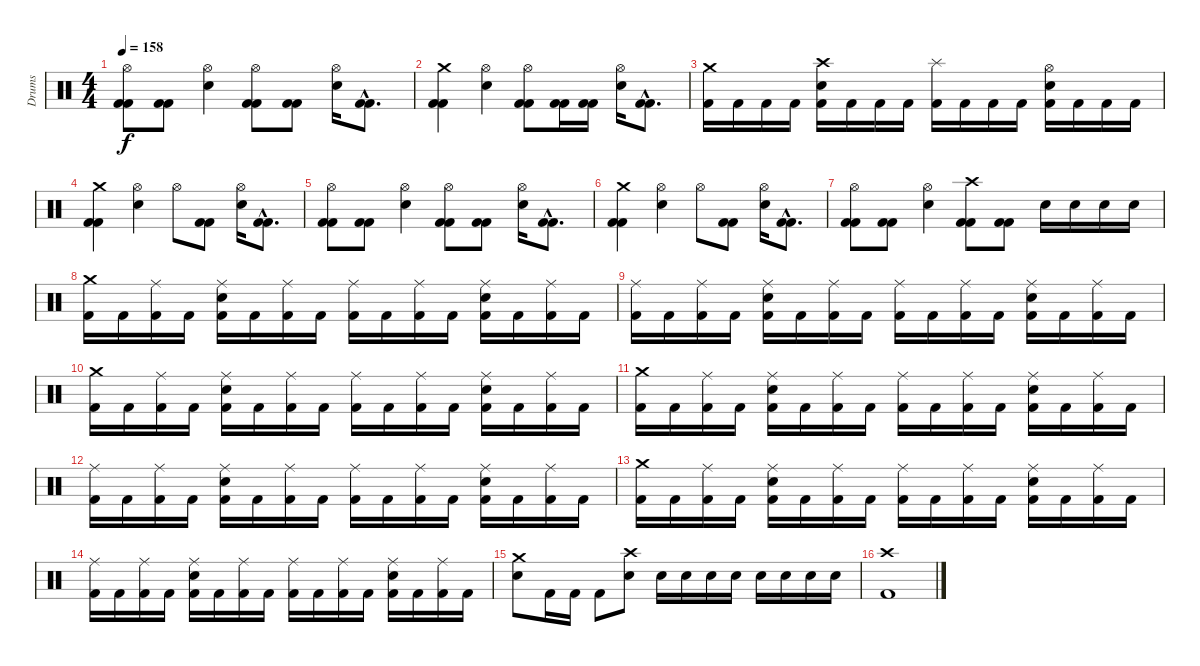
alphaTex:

\track ("Drums" "Drums") {instrument percussion}
\staff {score}
\articulation defaults
\ts (4 4)
\tempo 158
\clef neutral
\ks c
("Hi-Hat (open)" "Kick (hit) 2" "Kick (hit) 2").8{dy f} ("Kick (hit) 2" "Kick (hit) 2").8 ("Hi-Hat (open)" "Electric Snare (hit)").4 ("Hi-Hat (open)" "Kick (hit) 2" "Kick (hit) 2").8 ("Kick (hit) 2" "Kick (hit) 2").8 ("Hi-Hat (open)" "Electric Snare (hit)").16 ("Kick (hit) 2"{hac} "Kick (hit) 2"{hac}).8{d} |
("Crash medium (hit)" "Kick (hit) 2" "Kick (hit) 2").4 ("Hi-Hat (open)" "Electric Snare (hit)").4 ("Hi-Hat (open)" "Kick (hit) 2" "Kick (hit) 2").8 ("Kick (hit) 2" "Kick (hit) 2").16 ("Kick (hit) 2" "Kick (hit) 2").16 ("Hi-Hat (open)" "Electric Snare (hit)").16 ("Kick (hit) 2"{hac} "Kick (hit) 2"{hac}).8{d} |
("Crash medium (hit)" "Kick (hit) 2").16 "Kick (hit) 2".16 "Kick (hit) 2".16 "Kick (hit) 2".16 ("Crash high (hit)" "Electric Snare (hit)" "Kick (hit) 2").16 "Kick (hit) 2".16 "Kick (hit) 2".16 "Kick (hit) 2".16 ("Splash (hit)" "Kick (hit) 2").16 "Kick (hit) 2".16 "Kick (hit) 2".16 "Kick (hit) 2".16 ("Hi-Hat (open)" "Electric Snare (hit)" "Kick (hit) 2").16 "Kick (hit) 2".16 "Kick (hit) 2".16 "Kick (hit) 2".16 |
("Crash medium (hit)" "Kick (hit) 2" "Kick (hit) 2").4 ("Hi-Hat (open)" "Electric Snare (hit)").4 "Hi-Hat (open)".8 ("Kick (hit) 2" "Kick (hit) 2").8 ("Hi-Hat (open)" "Electric Snare (hit)").16 ("Kick (hit) 2"{hac} "Kick (hit) 2"{hac}).8{d} |
("Hi-Hat (open)" "Kick (hit) 2" "Kick (hit) 2").8 ("Kick (hit) 2" "Kick (hit) 2").8 ("Hi-Hat (open)" "Electric Snare (hit)").4 ("Hi-Hat (open)" "Kick (hit) 2" "Kick (hit) 2").8 ("Kick (hit) 2" "Kick (hit) 2").8 ("Hi-Hat (open)" "Electric Snare (hit)").16 ("Kick (hit) 2"{hac} "Kick (hit) 2"{hac}).8{d} |
("Crash medium (hit)" "Kick (hit) 2" "Kick (hit) 2").4 ("Hi-Hat (open)" "Electric Snare (hit)").4 "Hi-Hat (open)".8 ("Kick (hit) 2" "Kick (hit) 2").8 ("Hi-Hat (open)" "Electric Snare (hit)").16 ("Kick (hit) 2"{hac} "Kick (hit) 2"{hac}).8{d} |
("Hi-Hat (open)" "Kick (hit) 2" "Kick (hit) 2").8 ("Kick (hit) 2" "Kick (hit) 2").8 ("Hi-Hat (open)" "Electric Snare (hit)").4 ("Crash high (hit)" "Kick (hit) 2" "Kick (hit) 2").8 ("Kick (hit) 2" "Kick (hit) 2").8 "Electric Snare (hit)".16 "Electric Snare (hit)".16 "Electric Snare (hit)".16 "Electric Snare (hit)".16 |
("Crash medium (hit)" "Kick (hit) 2").16 "Kick (hit) 2".16 ("Ride (middle)" "Kick (hit) 2").16 "Kick (hit) 2".16 ("Ride (middle)" "Electric Snare (hit)" "Kick (hit) 2").16 "Kick (hit) 2".16 ("Ride (middle)" "Kick (hit) 2").16 "Kick (hit) 2".16 ("Ride (middle)" "Kick (hit) 2").16 "Kick (hit) 2".16 ("Ride (middle)" "Kick (hit) 2").16 "Kick (hit) 2".16 ("Ride (middle)" "Electric Snare (hit)" "Kick (hit) 2").16 "Kick (hit) 2".16 ("Ride (middle)" "Kick (hit) 2").16 "Kick (hit) 2".16 |
("Ride (middle)" "Kick (hit) 2").16 "Kick (hit) 2".16 ("Ride (middle)" "Kick (hit) 2").16 "Kick (hit) 2".16 ("Ride (middle)" "Electric Snare (hit)" "Kick (hit) 2").16 "Kick (hit) 2".16 ("Ride (middle)" "Kick (hit) 2").16 "Kick (hit) 2".16 ("Ride (middle)" "Kick (hit) 2").16 "Kick (hit) 2".16 ("Ride (middle)" "Kick (hit) 2").16 "Kick (hit) 2".16 ("Ride (middle)" "Electric Snare (hit)" "Kick (hit) 2").16 "Kick (hit) 2".16 ("Ride (middle)" "Kick (hit) 2").16 "Kick (hit) 2".16 |
("Crash medium (hit)" "Kick (hit) 2").16 "Kick (hit) 2".16 ("Ride (middle)" "Kick (hit) 2").16 "Kick (hit) 2".16 ("Ride (middle)" "Electric Snare (hit)" "Kick (hit) 2").16 "Kick (hit) 2".16 ("Ride (middle)" "Kick (hit) 2").16 "Kick (hit) 2".16 ("Ride (middle)" "Kick (hit) 2").16 "Kick (hit) 2".16 ("Ride (middle)" "Kick (hit) 2").16 "Kick (hit) 2".16 ("Ride (middle)" "Electric Snare (hit)" "Kick (hit) 2").16 "Kick (hit) 2".16 ("Ride (middle)" "Kick (hit) 2").16 "Kick (hit) 2".16 |
("Crash medium (hit)" "Kick (hit) 2").16 "Kick (hit) 2".16 ("Ride (middle)" "Kick (hit) 2").16 "Kick (hit) 2".16 ("Ride (middle)" "Electric Snare (hit)" "Kick (hit) 2").16 "Kick (hit) 2".16 ("Ride (middle)" "Kick (hit) 2").16 "Kick (hit) 2".16 ("Ride (middle)" "Kick (hit) 2").16 "Kick (hit) 2".16 ("Ride (middle)" "Kick (hit) 2").16 "Kick (hit) 2".16 ("Ride (middle)" "Electric Snare (hit)" "Kick (hit) 2").16 "Kick (hit) 2".16 ("Ride (middle)" "Kick (hit) 2").16 "Kick (hit) 2".16 |
("Ride (middle)" "Kick (hit) 2").16 "Kick (hit) 2".16 ("Ride (middle)" "Kick (hit) 2").16 "Kick (hit) 2".16 ("Ride (middle)" "Electric Snare (hit)" "Kick (hit) 2").16 "Kick (hit) 2".16 ("Ride (middle)" "Kick (hit) 2").16 "Kick (hit) 2".16 ("Ride (middle)" "Kick (hit) 2").16 "Kick (hit) 2".16 ("Ride (middle)" "Kick (hit) 2").16 "Kick (hit) 2".16 ("Ride (middle)" "Electric Snare (hit)" "Kick (hit) 2").16 "Kick (hit) 2".16 ("Ride (middle)" "Kick (hit) 2").16 "Kick (hit) 2".16 |
("Crash medium (hit)" "Kick (hit) 2").16 "Kick (hit) 2".16 ("Ride (middle)" "Kick (hit) 2").16 "Kick (hit) 2".16 ("Ride (middle)" "Electric Snare (hit)" "Kick (hit) 2").16 "Kick (hit) 2".16 ("Ride (middle)" "Kick (hit) 2").16 "Kick (hit) 2".16 ("Ride (middle)" "Kick (hit) 2").16 "Kick (hit) 2".16 ("Ride (middle)" "Kick (hit) 2").16 "Kick (hit) 2".16 ("Ride (middle)" "Electric Snare (hit)" "Kick (hit) 2").16 "Kick (hit) 2".16 ("Ride (middle)" "Kick (hit) 2").16 "Kick (hit) 2".16 |
("Ride (middle)" "Kick (hit) 2").16 "Kick (hit) 2".16 ("Ride (middle)" "Kick (hit) 2").16 "Kick (hit) 2".16 ("Ride (middle)" "Electric Snare (hit)" "Kick (hit) 2").16 "Kick (hit) 2".16 ("Ride (middle)" "Kick (hit) 2").16 "Kick (hit) 2".16 ("Ride (middle)" "Kick (hit) 2").16 "Kick (hit) 2".16 ("Ride (middle)" "Kick (hit) 2").16 "Kick (hit) 2".16 ("Ride (middle)" "Electric Snare (hit)" "Kick (hit) 2").16 "Kick (hit) 2".16 ("Ride (middle)" "Kick (hit) 2").16 "Kick (hit) 2".16 |
("Crash medium (hit)" "Electric Snare (hit)").8 "Kick (hit) 2".16 "Kick (hit) 2".16 "Kick (hit) 2".8 ("Crash high (hit)" "Electric Snare (hit)").8 "Electric Snare (hit)".16 "Electric Snare (hit)".16 "Electric Snare (hit)".16 "Electric Snare (hit)".16 "Electric Snare (hit)".16 "Electric Snare (hit)".16 "Electric Snare (hit)".16 "Electric Snare (hit)".16 |
("Crash high (hit)" "Kick (hit) 2").1
